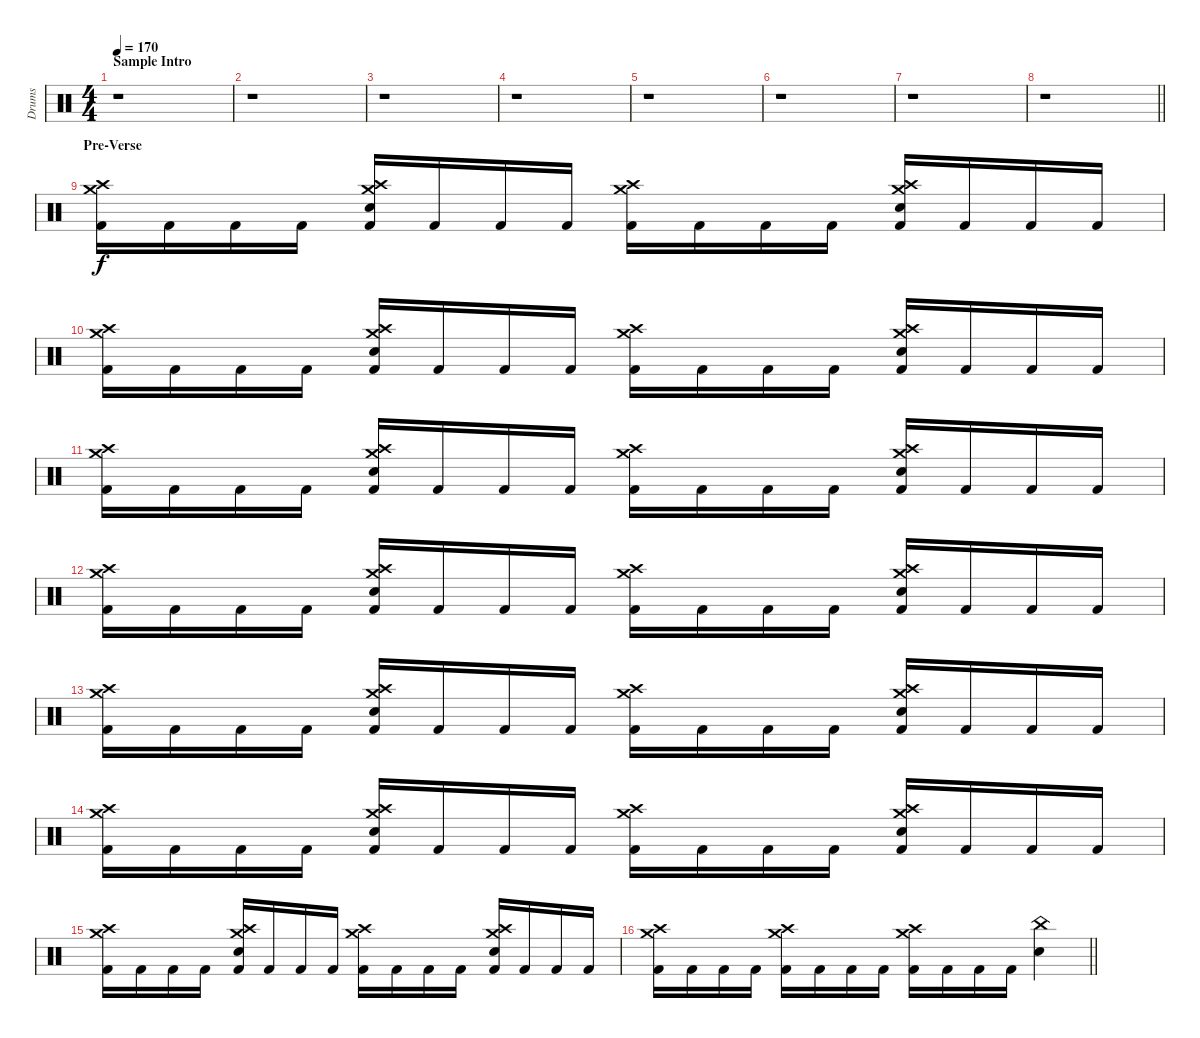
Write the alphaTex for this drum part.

\track ("Drums" "Drums") {instrument percussion}
\staff {score}
\articulation defaults
\ts (4 4)
\section ("" "Sample Intro")
\tempo 170
\clef neutral
\ks c
r.1{dy f} |
r.1 |
r.1 |
r.1 |
r.1 |
r.1 |
r.1 |
\barLineRight lightlight
r.1 |
\section ("" "Pre-Verse")
("Kick (hit) 2" "Crash high (hit)" "Crash medium (hit)").16 "Kick (hit) 2".16 "Kick (hit) 2".16 "Kick (hit) 2".16 ("Kick (hit) 2" "Crash high (hit)" "Electric Snare (hit)" "Crash medium (hit)").16 "Kick (hit) 2".16 "Kick (hit) 2".16 "Kick (hit) 2".16 ("Kick (hit) 2" "Crash high (hit)" "Crash medium (hit)").16 "Kick (hit) 2".16 "Kick (hit) 2".16 "Kick (hit) 2".16 ("Kick (hit) 2" "Crash high (hit)" "Electric Snare (hit)" "Crash medium (hit)").16 "Kick (hit) 2".16 "Kick (hit) 2".16 "Kick (hit) 2".16 |
("Kick (hit) 2" "Crash high (hit)" "Crash medium (hit)").16 "Kick (hit) 2".16 "Kick (hit) 2".16 "Kick (hit) 2".16 ("Kick (hit) 2" "Crash high (hit)" "Electric Snare (hit)" "Crash medium (hit)").16 "Kick (hit) 2".16 "Kick (hit) 2".16 "Kick (hit) 2".16 ("Kick (hit) 2" "Crash high (hit)" "Crash medium (hit)").16 "Kick (hit) 2".16 "Kick (hit) 2".16 "Kick (hit) 2".16 ("Kick (hit) 2" "Crash high (hit)" "Electric Snare (hit)" "Crash medium (hit)").16 "Kick (hit) 2".16 "Kick (hit) 2".16 "Kick (hit) 2".16 |
("Kick (hit) 2" "Crash high (hit)" "Crash medium (hit)").16 "Kick (hit) 2".16 "Kick (hit) 2".16 "Kick (hit) 2".16 ("Kick (hit) 2" "Crash high (hit)" "Electric Snare (hit)" "Crash medium (hit)").16 "Kick (hit) 2".16 "Kick (hit) 2".16 "Kick (hit) 2".16 ("Kick (hit) 2" "Crash high (hit)" "Crash medium (hit)").16 "Kick (hit) 2".16 "Kick (hit) 2".16 "Kick (hit) 2".16 ("Kick (hit) 2" "Crash high (hit)" "Electric Snare (hit)" "Crash medium (hit)").16 "Kick (hit) 2".16 "Kick (hit) 2".16 "Kick (hit) 2".16 |
("Kick (hit) 2" "Crash high (hit)" "Crash medium (hit)").16 "Kick (hit) 2".16 "Kick (hit) 2".16 "Kick (hit) 2".16 ("Kick (hit) 2" "Crash high (hit)" "Electric Snare (hit)" "Crash medium (hit)").16 "Kick (hit) 2".16 "Kick (hit) 2".16 "Kick (hit) 2".16 ("Kick (hit) 2" "Crash high (hit)" "Crash medium (hit)").16 "Kick (hit) 2".16 "Kick (hit) 2".16 "Kick (hit) 2".16 ("Kick (hit) 2" "Crash high (hit)" "Electric Snare (hit)" "Crash medium (hit)").16 "Kick (hit) 2".16 "Kick (hit) 2".16 "Kick (hit) 2".16 |
("Kick (hit) 2" "Crash high (hit)" "Crash medium (hit)").16 "Kick (hit) 2".16 "Kick (hit) 2".16 "Kick (hit) 2".16 ("Kick (hit) 2" "Crash high (hit)" "Electric Snare (hit)" "Crash medium (hit)").16 "Kick (hit) 2".16 "Kick (hit) 2".16 "Kick (hit) 2".16 ("Kick (hit) 2" "Crash high (hit)" "Crash medium (hit)").16 "Kick (hit) 2".16 "Kick (hit) 2".16 "Kick (hit) 2".16 ("Kick (hit) 2" "Crash high (hit)" "Electric Snare (hit)" "Crash medium (hit)").16 "Kick (hit) 2".16 "Kick (hit) 2".16 "Kick (hit) 2".16 |
("Kick (hit) 2" "Crash high (hit)" "Crash medium (hit)").16 "Kick (hit) 2".16 "Kick (hit) 2".16 "Kick (hit) 2".16 ("Kick (hit) 2" "Crash high (hit)" "Electric Snare (hit)" "Crash medium (hit)").16 "Kick (hit) 2".16 "Kick (hit) 2".16 "Kick (hit) 2".16 ("Kick (hit) 2" "Crash high (hit)" "Crash medium (hit)").16 "Kick (hit) 2".16 "Kick (hit) 2".16 "Kick (hit) 2".16 ("Kick (hit) 2" "Crash high (hit)" "Electric Snare (hit)" "Crash medium (hit)").16 "Kick (hit) 2".16 "Kick (hit) 2".16 "Kick (hit) 2".16 |
("Kick (hit) 2" "Crash high (hit)" "Crash medium (hit)").16 "Kick (hit) 2".16 "Kick (hit) 2".16 "Kick (hit) 2".16 ("Kick (hit) 2" "Crash high (hit)" "Crash medium (hit)" "Electric Snare (hit)").16 "Kick (hit) 2".16 "Kick (hit) 2".16 "Kick (hit) 2".16 ("Kick (hit) 2" "Crash high (hit)" "Crash medium (hit)").16 "Kick (hit) 2".16 "Kick (hit) 2".16 "Kick (hit) 2".16 ("Kick (hit) 2" "Crash high (hit)" "Electric Snare (hit)" "Crash medium (hit)").16 "Kick (hit) 2".16 "Kick (hit) 2".16 "Kick (hit) 2".16 |
\barLineRight lightlight
("Crash high (hit)" "Crash medium (hit)" "Kick (hit) 2").16 "Kick (hit) 2".16 "Kick (hit) 2".16 "Kick (hit) 2".16 ("Crash high (hit)" "Crash medium (hit)" "Kick (hit) 2").16 "Kick (hit) 2".16 "Kick (hit) 2".16 "Kick (hit) 2".16 ("Crash high (hit)" "Crash medium (hit)" "Kick (hit) 2").16 "Kick (hit) 2".16 "Kick (hit) 2".16 "Kick (hit) 2".16 ("China (hit)" "Electric Snare (hit)").4
